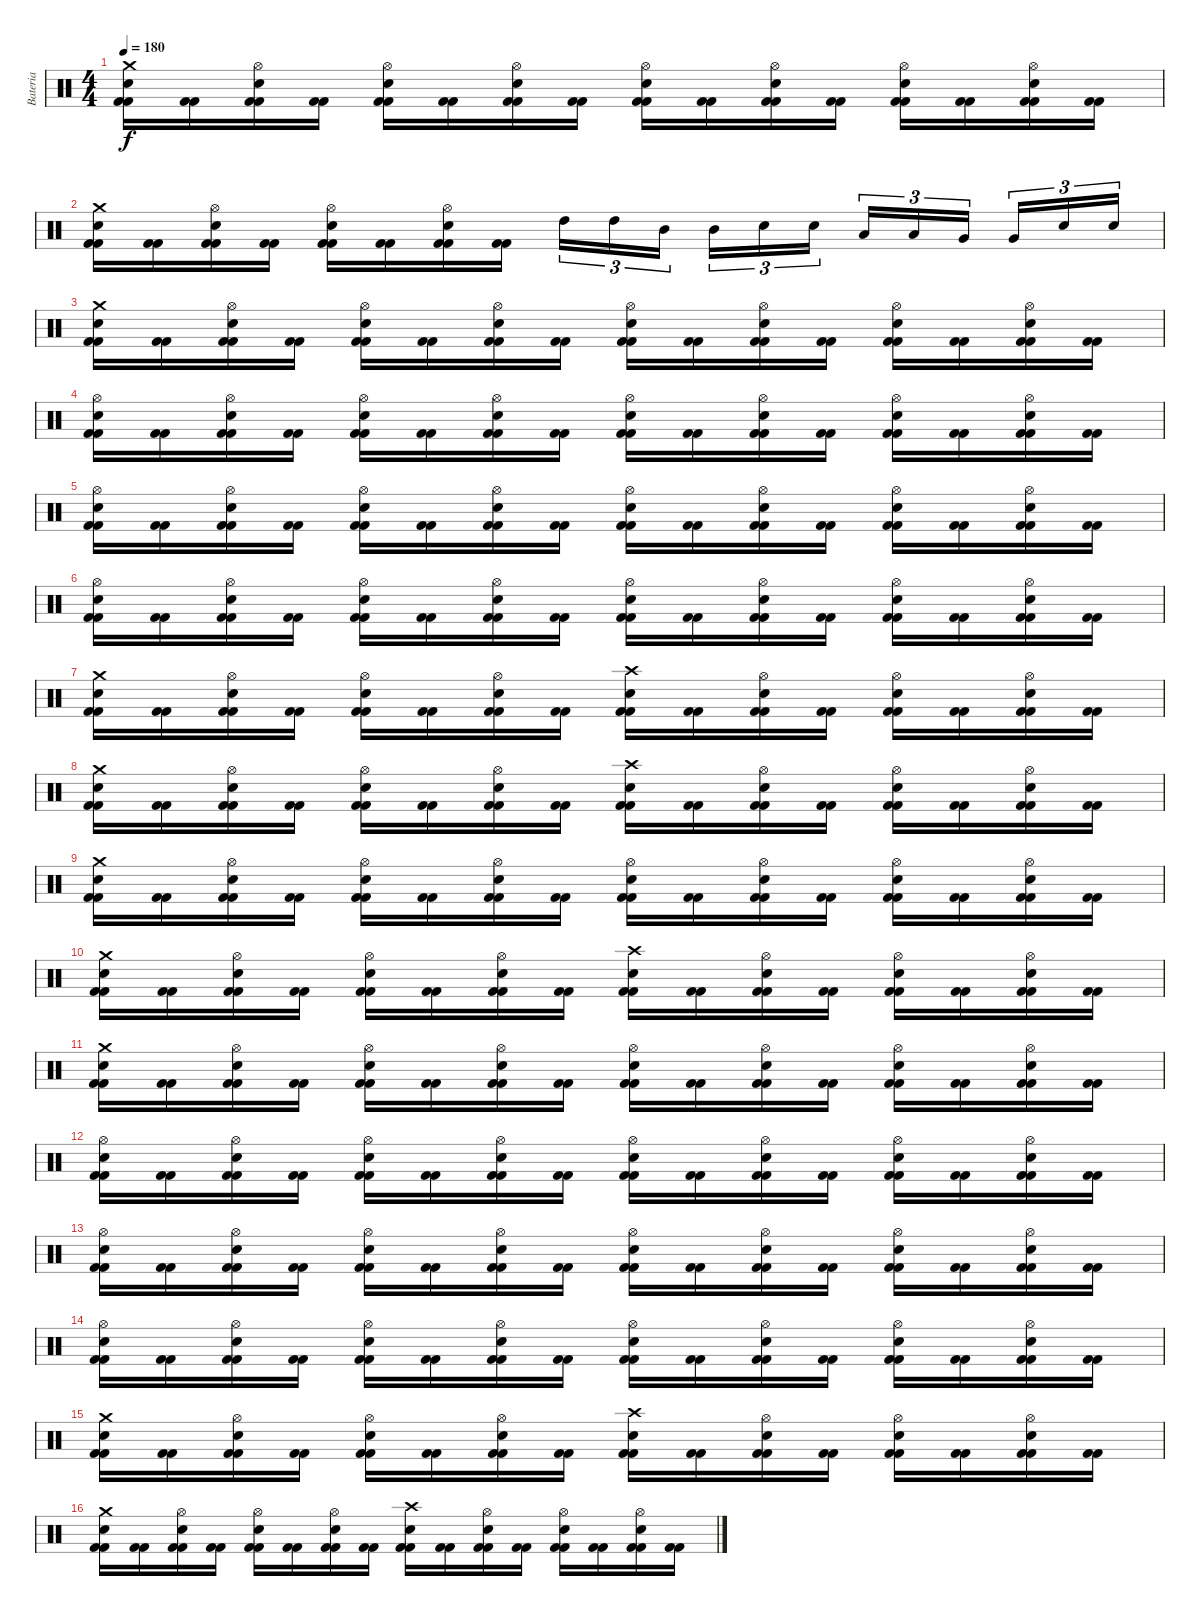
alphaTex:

\track ("Bateria" "Bateria") {instrument percussion}
\staff {score}
\articulation defaults
\ts (4 4)
\tempo 180
\clef neutral
\ks c
("Kick (hit) 2" "Kick (hit) 2" "Snare (hit) 2" "Crash medium (hit)").16{dy f} ("Kick (hit) 2" "Kick (hit) 2").16 ("Kick (hit) 2" "Kick (hit) 2" "Snare (hit) 2" "Hi-Hat (open)").16 ("Kick (hit) 2" "Kick (hit) 2").16 ("Kick (hit) 2" "Kick (hit) 2" "Snare (hit) 2" "Hi-Hat (open)").16 ("Kick (hit) 2" "Kick (hit) 2").16 ("Kick (hit) 2" "Kick (hit) 2" "Snare (hit) 2" "Hi-Hat (open)").16 ("Kick (hit) 2" "Kick (hit) 2").16 ("Kick (hit) 2" "Kick (hit) 2" "Snare (hit) 2" "Hi-Hat (open)").16 ("Kick (hit) 2" "Kick (hit) 2").16 ("Kick (hit) 2" "Kick (hit) 2" "Snare (hit) 2" "Hi-Hat (open)").16 ("Kick (hit) 2" "Kick (hit) 2").16 ("Kick (hit) 2" "Kick (hit) 2" "Snare (hit) 2" "Hi-Hat (open)").16 ("Kick (hit) 2" "Kick (hit) 2").16 ("Kick (hit) 2" "Kick (hit) 2" "Snare (hit) 2" "Hi-Hat (open)").16 ("Kick (hit) 2" "Kick (hit) 2").16 |
("Kick (hit) 2" "Kick (hit) 2" "Snare (hit) 2" "Crash medium (hit)").16 ("Kick (hit) 2" "Kick (hit) 2").16 ("Kick (hit) 2" "Kick (hit) 2" "Snare (hit) 2" "Hi-Hat (open)").16 ("Kick (hit) 2" "Kick (hit) 2").16 ("Kick (hit) 2" "Kick (hit) 2" "Snare (hit) 2" "Hi-Hat (open)").16 ("Kick (hit) 2" "Kick (hit) 2").16 ("Kick (hit) 2" "Kick (hit) 2" "Snare (hit) 2" "Hi-Hat (open)").16 ("Kick (hit) 2" "Kick (hit) 2").16 "High Tom (hit)".16{tu (3 2)} "High Tom (hit)".16{tu (3 2)} "Mid Tom (hit)".16{tu (3 2)} "Mid Tom (hit)".16{tu (3 2)} "Electric Snare (hit)".16{tu (3 2)} "Electric Snare (hit)".16{tu (3 2)} "Low Tom (hit)".16{tu (3 2)} "Low Tom (hit)".16{tu (3 2)} "Very Low Tom (hit)".16{tu (3 2)} "Very Low Tom (hit)".16{tu (3 2)} "Electric Snare (hit)".16{tu (3 2)} "Electric Snare (hit)".16{tu (3 2)} |
("Kick (hit) 2" "Kick (hit) 2" "Snare (hit) 2" "Crash medium (hit)").16 ("Kick (hit) 2" "Kick (hit) 2").16 ("Kick (hit) 2" "Kick (hit) 2" "Snare (hit) 2" "Hi-Hat (open)").16 ("Kick (hit) 2" "Kick (hit) 2").16 ("Kick (hit) 2" "Kick (hit) 2" "Snare (hit) 2" "Hi-Hat (open)").16 ("Kick (hit) 2" "Kick (hit) 2").16 ("Kick (hit) 2" "Kick (hit) 2" "Snare (hit) 2" "Hi-Hat (open)").16 ("Kick (hit) 2" "Kick (hit) 2").16 ("Kick (hit) 2" "Kick (hit) 2" "Snare (hit) 2" "Hi-Hat (open)").16 ("Kick (hit) 2" "Kick (hit) 2").16 ("Kick (hit) 2" "Kick (hit) 2" "Snare (hit) 2" "Hi-Hat (open)").16 ("Kick (hit) 2" "Kick (hit) 2").16 ("Kick (hit) 2" "Kick (hit) 2" "Snare (hit) 2" "Hi-Hat (open)").16 ("Kick (hit) 2" "Kick (hit) 2").16 ("Kick (hit) 2" "Kick (hit) 2" "Snare (hit) 2" "Hi-Hat (open)").16 ("Kick (hit) 2" "Kick (hit) 2").16 |
("Kick (hit) 2" "Kick (hit) 2" "Snare (hit) 2" "Hi-Hat (open)").16 ("Kick (hit) 2" "Kick (hit) 2").16 ("Kick (hit) 2" "Kick (hit) 2" "Snare (hit) 2" "Hi-Hat (open)").16 ("Kick (hit) 2" "Kick (hit) 2").16 ("Kick (hit) 2" "Kick (hit) 2" "Snare (hit) 2" "Hi-Hat (open)").16 ("Kick (hit) 2" "Kick (hit) 2").16 ("Kick (hit) 2" "Kick (hit) 2" "Snare (hit) 2" "Hi-Hat (open)").16 ("Kick (hit) 2" "Kick (hit) 2").16 ("Kick (hit) 2" "Kick (hit) 2" "Snare (hit) 2" "Hi-Hat (open)").16 ("Kick (hit) 2" "Kick (hit) 2").16 ("Kick (hit) 2" "Kick (hit) 2" "Snare (hit) 2" "Hi-Hat (open)").16 ("Kick (hit) 2" "Kick (hit) 2").16 ("Kick (hit) 2" "Kick (hit) 2" "Snare (hit) 2" "Hi-Hat (open)").16 ("Kick (hit) 2" "Kick (hit) 2").16 ("Kick (hit) 2" "Kick (hit) 2" "Snare (hit) 2" "Hi-Hat (open)").16 ("Kick (hit) 2" "Kick (hit) 2").16 |
("Kick (hit) 2" "Kick (hit) 2" "Snare (hit) 2" "Hi-Hat (open)").16 ("Kick (hit) 2" "Kick (hit) 2").16 ("Kick (hit) 2" "Kick (hit) 2" "Snare (hit) 2" "Hi-Hat (open)").16 ("Kick (hit) 2" "Kick (hit) 2").16 ("Kick (hit) 2" "Kick (hit) 2" "Snare (hit) 2" "Hi-Hat (open)").16 ("Kick (hit) 2" "Kick (hit) 2").16 ("Kick (hit) 2" "Kick (hit) 2" "Snare (hit) 2" "Hi-Hat (open)").16 ("Kick (hit) 2" "Kick (hit) 2").16 ("Kick (hit) 2" "Kick (hit) 2" "Snare (hit) 2" "Hi-Hat (open)").16 ("Kick (hit) 2" "Kick (hit) 2").16 ("Kick (hit) 2" "Kick (hit) 2" "Snare (hit) 2" "Hi-Hat (open)").16 ("Kick (hit) 2" "Kick (hit) 2").16 ("Kick (hit) 2" "Kick (hit) 2" "Snare (hit) 2" "Hi-Hat (open)").16 ("Kick (hit) 2" "Kick (hit) 2").16 ("Kick (hit) 2" "Kick (hit) 2" "Snare (hit) 2" "Hi-Hat (open)").16 ("Kick (hit) 2" "Kick (hit) 2").16 |
("Kick (hit) 2" "Kick (hit) 2" "Snare (hit) 2" "Hi-Hat (open)").16 ("Kick (hit) 2" "Kick (hit) 2").16 ("Kick (hit) 2" "Kick (hit) 2" "Snare (hit) 2" "Hi-Hat (open)").16 ("Kick (hit) 2" "Kick (hit) 2").16 ("Kick (hit) 2" "Kick (hit) 2" "Snare (hit) 2" "Hi-Hat (open)").16 ("Kick (hit) 2" "Kick (hit) 2").16 ("Kick (hit) 2" "Kick (hit) 2" "Snare (hit) 2" "Hi-Hat (open)").16 ("Kick (hit) 2" "Kick (hit) 2").16 ("Kick (hit) 2" "Kick (hit) 2" "Snare (hit) 2" "Hi-Hat (open)").16 ("Kick (hit) 2" "Kick (hit) 2").16 ("Kick (hit) 2" "Kick (hit) 2" "Snare (hit) 2" "Hi-Hat (open)").16 ("Kick (hit) 2" "Kick (hit) 2").16 ("Kick (hit) 2" "Kick (hit) 2" "Snare (hit) 2" "Hi-Hat (open)").16 ("Kick (hit) 2" "Kick (hit) 2").16 ("Kick (hit) 2" "Kick (hit) 2" "Snare (hit) 2" "Hi-Hat (open)").16 ("Kick (hit) 2" "Kick (hit) 2").16 |
("Kick (hit) 2" "Kick (hit) 2" "Snare (hit) 2" "Crash medium (hit)").16 ("Kick (hit) 2" "Kick (hit) 2").16 ("Kick (hit) 2" "Kick (hit) 2" "Snare (hit) 2" "Hi-Hat (open)").16 ("Kick (hit) 2" "Kick (hit) 2").16 ("Kick (hit) 2" "Kick (hit) 2" "Snare (hit) 2" "Hi-Hat (open)").16 ("Kick (hit) 2" "Kick (hit) 2").16 ("Kick (hit) 2" "Kick (hit) 2" "Snare (hit) 2" "Hi-Hat (open)").16 ("Kick (hit) 2" "Kick (hit) 2").16 ("Kick (hit) 2" "Kick (hit) 2" "Snare (hit) 2" "Crash high (hit)").16 ("Kick (hit) 2" "Kick (hit) 2").16 ("Kick (hit) 2" "Kick (hit) 2" "Snare (hit) 2" "Hi-Hat (open)").16 ("Kick (hit) 2" "Kick (hit) 2").16 ("Kick (hit) 2" "Kick (hit) 2" "Snare (hit) 2" "Hi-Hat (open)").16 ("Kick (hit) 2" "Kick (hit) 2").16 ("Kick (hit) 2" "Kick (hit) 2" "Snare (hit) 2" "Hi-Hat (open)").16 ("Kick (hit) 2" "Kick (hit) 2").16 |
("Kick (hit) 2" "Kick (hit) 2" "Snare (hit) 2" "Crash medium (hit)").16 ("Kick (hit) 2" "Kick (hit) 2").16 ("Kick (hit) 2" "Kick (hit) 2" "Snare (hit) 2" "Hi-Hat (open)").16 ("Kick (hit) 2" "Kick (hit) 2").16 ("Kick (hit) 2" "Kick (hit) 2" "Snare (hit) 2" "Hi-Hat (open)").16 ("Kick (hit) 2" "Kick (hit) 2").16 ("Kick (hit) 2" "Kick (hit) 2" "Snare (hit) 2" "Hi-Hat (open)").16 ("Kick (hit) 2" "Kick (hit) 2").16 ("Kick (hit) 2" "Kick (hit) 2" "Snare (hit) 2" "Crash high (hit)").16 ("Kick (hit) 2" "Kick (hit) 2").16 ("Kick (hit) 2" "Kick (hit) 2" "Snare (hit) 2" "Hi-Hat (open)").16 ("Kick (hit) 2" "Kick (hit) 2").16 ("Kick (hit) 2" "Kick (hit) 2" "Snare (hit) 2" "Hi-Hat (open)").16 ("Kick (hit) 2" "Kick (hit) 2").16 ("Kick (hit) 2" "Kick (hit) 2" "Snare (hit) 2" "Hi-Hat (open)").16 ("Kick (hit) 2" "Kick (hit) 2").16 |
("Kick (hit) 2" "Kick (hit) 2" "Snare (hit) 2" "Crash medium (hit)").16 ("Kick (hit) 2" "Kick (hit) 2").16 ("Kick (hit) 2" "Kick (hit) 2" "Snare (hit) 2" "Hi-Hat (open)").16 ("Kick (hit) 2" "Kick (hit) 2").16 ("Kick (hit) 2" "Kick (hit) 2" "Snare (hit) 2" "Hi-Hat (open)").16 ("Kick (hit) 2" "Kick (hit) 2").16 ("Kick (hit) 2" "Kick (hit) 2" "Snare (hit) 2" "Hi-Hat (open)").16 ("Kick (hit) 2" "Kick (hit) 2").16 ("Kick (hit) 2" "Kick (hit) 2" "Snare (hit) 2" "Hi-Hat (open)").16 ("Kick (hit) 2" "Kick (hit) 2").16 ("Kick (hit) 2" "Kick (hit) 2" "Snare (hit) 2" "Hi-Hat (open)").16 ("Kick (hit) 2" "Kick (hit) 2").16 ("Kick (hit) 2" "Kick (hit) 2" "Snare (hit) 2" "Hi-Hat (open)").16 ("Kick (hit) 2" "Kick (hit) 2").16 ("Kick (hit) 2" "Kick (hit) 2" "Snare (hit) 2" "Hi-Hat (open)").16 ("Kick (hit) 2" "Kick (hit) 2").16 |
("Kick (hit) 2" "Kick (hit) 2" "Snare (hit) 2" "Crash medium (hit)").16 ("Kick (hit) 2" "Kick (hit) 2").16 ("Kick (hit) 2" "Kick (hit) 2" "Snare (hit) 2" "Hi-Hat (open)").16 ("Kick (hit) 2" "Kick (hit) 2").16 ("Kick (hit) 2" "Kick (hit) 2" "Snare (hit) 2" "Hi-Hat (open)").16 ("Kick (hit) 2" "Kick (hit) 2").16 ("Kick (hit) 2" "Kick (hit) 2" "Snare (hit) 2" "Hi-Hat (open)").16 ("Kick (hit) 2" "Kick (hit) 2").16 ("Kick (hit) 2" "Kick (hit) 2" "Snare (hit) 2" "Crash high (hit)").16 ("Kick (hit) 2" "Kick (hit) 2").16 ("Kick (hit) 2" "Kick (hit) 2" "Snare (hit) 2" "Hi-Hat (open)").16 ("Kick (hit) 2" "Kick (hit) 2").16 ("Kick (hit) 2" "Kick (hit) 2" "Snare (hit) 2" "Hi-Hat (open)").16 ("Kick (hit) 2" "Kick (hit) 2").16 ("Kick (hit) 2" "Kick (hit) 2" "Snare (hit) 2" "Hi-Hat (open)").16 ("Kick (hit) 2" "Kick (hit) 2").16 |
("Kick (hit) 2" "Kick (hit) 2" "Snare (hit) 2" "Crash medium (hit)").16 ("Kick (hit) 2" "Kick (hit) 2").16 ("Kick (hit) 2" "Kick (hit) 2" "Snare (hit) 2" "Hi-Hat (open)").16 ("Kick (hit) 2" "Kick (hit) 2").16 ("Kick (hit) 2" "Kick (hit) 2" "Snare (hit) 2" "Hi-Hat (open)").16 ("Kick (hit) 2" "Kick (hit) 2").16 ("Kick (hit) 2" "Kick (hit) 2" "Snare (hit) 2" "Hi-Hat (open)").16 ("Kick (hit) 2" "Kick (hit) 2").16 ("Kick (hit) 2" "Kick (hit) 2" "Snare (hit) 2" "Hi-Hat (open)").16 ("Kick (hit) 2" "Kick (hit) 2").16 ("Kick (hit) 2" "Kick (hit) 2" "Snare (hit) 2" "Hi-Hat (open)").16 ("Kick (hit) 2" "Kick (hit) 2").16 ("Kick (hit) 2" "Kick (hit) 2" "Snare (hit) 2" "Hi-Hat (open)").16 ("Kick (hit) 2" "Kick (hit) 2").16 ("Kick (hit) 2" "Kick (hit) 2" "Snare (hit) 2" "Hi-Hat (open)").16 ("Kick (hit) 2" "Kick (hit) 2").16 |
("Kick (hit) 2" "Kick (hit) 2" "Snare (hit) 2" "Hi-Hat (open)").16 ("Kick (hit) 2" "Kick (hit) 2").16 ("Kick (hit) 2" "Kick (hit) 2" "Snare (hit) 2" "Hi-Hat (open)").16 ("Kick (hit) 2" "Kick (hit) 2").16 ("Kick (hit) 2" "Kick (hit) 2" "Snare (hit) 2" "Hi-Hat (open)").16 ("Kick (hit) 2" "Kick (hit) 2").16 ("Kick (hit) 2" "Kick (hit) 2" "Snare (hit) 2" "Hi-Hat (open)").16 ("Kick (hit) 2" "Kick (hit) 2").16 ("Kick (hit) 2" "Kick (hit) 2" "Snare (hit) 2" "Hi-Hat (open)").16 ("Kick (hit) 2" "Kick (hit) 2").16 ("Kick (hit) 2" "Kick (hit) 2" "Snare (hit) 2" "Hi-Hat (open)").16 ("Kick (hit) 2" "Kick (hit) 2").16 ("Kick (hit) 2" "Kick (hit) 2" "Snare (hit) 2" "Hi-Hat (open)").16 ("Kick (hit) 2" "Kick (hit) 2").16 ("Kick (hit) 2" "Kick (hit) 2" "Snare (hit) 2" "Hi-Hat (open)").16 ("Kick (hit) 2" "Kick (hit) 2").16 |
("Kick (hit) 2" "Kick (hit) 2" "Snare (hit) 2" "Hi-Hat (open)").16 ("Kick (hit) 2" "Kick (hit) 2").16 ("Kick (hit) 2" "Kick (hit) 2" "Snare (hit) 2" "Hi-Hat (open)").16 ("Kick (hit) 2" "Kick (hit) 2").16 ("Kick (hit) 2" "Kick (hit) 2" "Snare (hit) 2" "Hi-Hat (open)").16 ("Kick (hit) 2" "Kick (hit) 2").16 ("Kick (hit) 2" "Kick (hit) 2" "Snare (hit) 2" "Hi-Hat (open)").16 ("Kick (hit) 2" "Kick (hit) 2").16 ("Kick (hit) 2" "Kick (hit) 2" "Snare (hit) 2" "Hi-Hat (open)").16 ("Kick (hit) 2" "Kick (hit) 2").16 ("Kick (hit) 2" "Kick (hit) 2" "Snare (hit) 2" "Hi-Hat (open)").16 ("Kick (hit) 2" "Kick (hit) 2").16 ("Kick (hit) 2" "Kick (hit) 2" "Snare (hit) 2" "Hi-Hat (open)").16 ("Kick (hit) 2" "Kick (hit) 2").16 ("Kick (hit) 2" "Kick (hit) 2" "Snare (hit) 2" "Hi-Hat (open)").16 ("Kick (hit) 2" "Kick (hit) 2").16 |
("Kick (hit) 2" "Kick (hit) 2" "Snare (hit) 2" "Hi-Hat (open)").16 ("Kick (hit) 2" "Kick (hit) 2").16 ("Kick (hit) 2" "Kick (hit) 2" "Snare (hit) 2" "Hi-Hat (open)").16 ("Kick (hit) 2" "Kick (hit) 2").16 ("Kick (hit) 2" "Kick (hit) 2" "Snare (hit) 2" "Hi-Hat (open)").16 ("Kick (hit) 2" "Kick (hit) 2").16 ("Kick (hit) 2" "Kick (hit) 2" "Snare (hit) 2" "Hi-Hat (open)").16 ("Kick (hit) 2" "Kick (hit) 2").16 ("Kick (hit) 2" "Kick (hit) 2" "Snare (hit) 2" "Hi-Hat (open)").16 ("Kick (hit) 2" "Kick (hit) 2").16 ("Kick (hit) 2" "Kick (hit) 2" "Snare (hit) 2" "Hi-Hat (open)").16 ("Kick (hit) 2" "Kick (hit) 2").16 ("Kick (hit) 2" "Kick (hit) 2" "Snare (hit) 2" "Hi-Hat (open)").16 ("Kick (hit) 2" "Kick (hit) 2").16 ("Kick (hit) 2" "Kick (hit) 2" "Snare (hit) 2" "Hi-Hat (open)").16 ("Kick (hit) 2" "Kick (hit) 2").16 |
("Kick (hit) 2" "Kick (hit) 2" "Snare (hit) 2" "Crash medium (hit)").16 ("Kick (hit) 2" "Kick (hit) 2").16 ("Kick (hit) 2" "Kick (hit) 2" "Snare (hit) 2" "Hi-Hat (open)").16 ("Kick (hit) 2" "Kick (hit) 2").16 ("Kick (hit) 2" "Kick (hit) 2" "Snare (hit) 2" "Hi-Hat (open)").16 ("Kick (hit) 2" "Kick (hit) 2").16 ("Kick (hit) 2" "Kick (hit) 2" "Snare (hit) 2" "Hi-Hat (open)").16 ("Kick (hit) 2" "Kick (hit) 2").16 ("Kick (hit) 2" "Kick (hit) 2" "Snare (hit) 2" "Crash high (hit)").16 ("Kick (hit) 2" "Kick (hit) 2").16 ("Kick (hit) 2" "Kick (hit) 2" "Snare (hit) 2" "Hi-Hat (open)").16 ("Kick (hit) 2" "Kick (hit) 2").16 ("Kick (hit) 2" "Kick (hit) 2" "Snare (hit) 2" "Hi-Hat (open)").16 ("Kick (hit) 2" "Kick (hit) 2").16 ("Kick (hit) 2" "Kick (hit) 2" "Snare (hit) 2" "Hi-Hat (open)").16 ("Kick (hit) 2" "Kick (hit) 2").16 |
("Kick (hit) 2" "Kick (hit) 2" "Snare (hit) 2" "Crash medium (hit)").16 ("Kick (hit) 2" "Kick (hit) 2").16 ("Kick (hit) 2" "Kick (hit) 2" "Snare (hit) 2" "Hi-Hat (open)").16 ("Kick (hit) 2" "Kick (hit) 2").16 ("Kick (hit) 2" "Kick (hit) 2" "Snare (hit) 2" "Hi-Hat (open)").16 ("Kick (hit) 2" "Kick (hit) 2").16 ("Kick (hit) 2" "Kick (hit) 2" "Snare (hit) 2" "Hi-Hat (open)").16 ("Kick (hit) 2" "Kick (hit) 2").16 ("Kick (hit) 2" "Kick (hit) 2" "Snare (hit) 2" "Crash high (hit)").16 ("Kick (hit) 2" "Kick (hit) 2").16 ("Kick (hit) 2" "Kick (hit) 2" "Snare (hit) 2" "Hi-Hat (open)").16 ("Kick (hit) 2" "Kick (hit) 2").16 ("Kick (hit) 2" "Kick (hit) 2" "Snare (hit) 2" "Hi-Hat (open)").16 ("Kick (hit) 2" "Kick (hit) 2").16 ("Kick (hit) 2" "Kick (hit) 2" "Snare (hit) 2" "Hi-Hat (open)").16 ("Kick (hit) 2" "Kick (hit) 2").16
